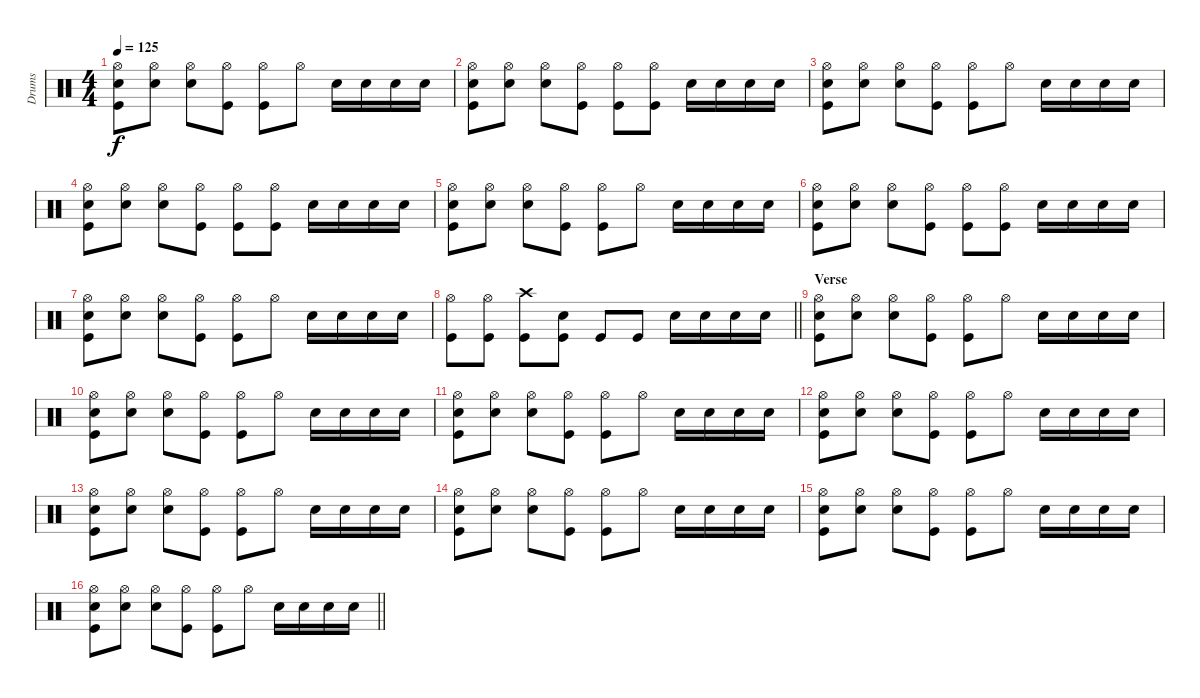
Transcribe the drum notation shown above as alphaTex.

\track ("Drums" "Drums") {instrument percussion}
\staff {score}
\articulation defaults
\ts (4 4)
\tempo 125
\clef neutral
\ks c
("Hi-Hat (open)" "Electric Snare (hit)" "Kick (hit)").8{dy f} ("Hi-Hat (open)" "Electric Snare (hit)").8 ("Hi-Hat (open)" "Electric Snare (hit)").8 ("Hi-Hat (open)" "Kick (hit)").8 ("Hi-Hat (open)" "Kick (hit)").8 "Hi-Hat (open)".8 "Electric Snare (hit)".16 "Electric Snare (hit)".16 "Electric Snare (hit)".16 "Electric Snare (hit)".16 |
("Hi-Hat (open)" "Electric Snare (hit)" "Kick (hit)").8 ("Hi-Hat (open)" "Electric Snare (hit)").8 ("Hi-Hat (open)" "Electric Snare (hit)").8 ("Hi-Hat (open)" "Kick (hit)").8 ("Hi-Hat (open)" "Kick (hit)").8 ("Hi-Hat (open)" "Kick (hit)").8 "Electric Snare (hit)".16 "Electric Snare (hit)".16 "Electric Snare (hit)".16 "Electric Snare (hit)".16 |
("Hi-Hat (open)" "Electric Snare (hit)" "Kick (hit)").8 ("Hi-Hat (open)" "Electric Snare (hit)").8 ("Hi-Hat (open)" "Electric Snare (hit)").8 ("Hi-Hat (open)" "Kick (hit)").8 ("Hi-Hat (open)" "Kick (hit)").8 "Hi-Hat (open)".8 "Electric Snare (hit)".16 "Electric Snare (hit)".16 "Electric Snare (hit)".16 "Electric Snare (hit)".16 |
("Hi-Hat (open)" "Electric Snare (hit)" "Kick (hit)").8 ("Hi-Hat (open)" "Electric Snare (hit)").8 ("Hi-Hat (open)" "Electric Snare (hit)").8 ("Hi-Hat (open)" "Kick (hit)").8 ("Hi-Hat (open)" "Kick (hit)").8 ("Hi-Hat (open)" "Kick (hit)").8 "Electric Snare (hit)".16 "Electric Snare (hit)".16 "Electric Snare (hit)".16 "Electric Snare (hit)".16 |
("Hi-Hat (open)" "Electric Snare (hit)" "Kick (hit)").8 ("Hi-Hat (open)" "Electric Snare (hit)").8 ("Hi-Hat (open)" "Electric Snare (hit)").8 ("Hi-Hat (open)" "Kick (hit)").8 ("Hi-Hat (open)" "Kick (hit)").8 "Hi-Hat (open)".8 "Electric Snare (hit)".16 "Electric Snare (hit)".16 "Electric Snare (hit)".16 "Electric Snare (hit)".16 |
("Hi-Hat (open)" "Electric Snare (hit)" "Kick (hit)").8 ("Hi-Hat (open)" "Electric Snare (hit)").8 ("Hi-Hat (open)" "Electric Snare (hit)").8 ("Hi-Hat (open)" "Kick (hit)").8 ("Hi-Hat (open)" "Kick (hit)").8 ("Hi-Hat (open)" "Kick (hit)").8 "Electric Snare (hit)".16 "Electric Snare (hit)".16 "Electric Snare (hit)".16 "Electric Snare (hit)".16 |
("Hi-Hat (open)" "Electric Snare (hit)" "Kick (hit)").8 ("Hi-Hat (open)" "Electric Snare (hit)").8 ("Hi-Hat (open)" "Electric Snare (hit)").8 ("Hi-Hat (open)" "Kick (hit)").8 ("Hi-Hat (open)" "Kick (hit)").8 "Hi-Hat (open)".8 "Electric Snare (hit)".16 "Electric Snare (hit)".16 "Electric Snare (hit)".16 "Electric Snare (hit)".16 |
\barLineRight lightlight
("Hi-Hat (open)" "Kick (hit)").8 ("Hi-Hat (open)" "Kick (hit)").8 ("Crash high (hit)" "Kick (hit)").8 ("Electric Snare (hit)" "Kick (hit)").8 "Kick (hit)".8 "Kick (hit)".8 "Electric Snare (hit)".16 "Electric Snare (hit)".16 "Electric Snare (hit)".16 "Electric Snare (hit)".16 |
\section ("" "Verse")
("Hi-Hat (open)" "Electric Snare (hit)" "Kick (hit)").8 ("Hi-Hat (open)" "Electric Snare (hit)").8 ("Hi-Hat (open)" "Electric Snare (hit)").8 ("Hi-Hat (open)" "Kick (hit)").8 ("Hi-Hat (open)" "Kick (hit)").8 "Hi-Hat (open)".8 "Electric Snare (hit)".16 "Electric Snare (hit)".16 "Electric Snare (hit)".16 "Electric Snare (hit)".16 |
("Hi-Hat (open)" "Electric Snare (hit)" "Kick (hit)").8 ("Hi-Hat (open)" "Electric Snare (hit)").8 ("Hi-Hat (open)" "Electric Snare (hit)").8 ("Hi-Hat (open)" "Kick (hit)").8 ("Hi-Hat (open)" "Kick (hit)").8 "Hi-Hat (open)".8 "Electric Snare (hit)".16 "Electric Snare (hit)".16 "Electric Snare (hit)".16 "Electric Snare (hit)".16 |
("Hi-Hat (open)" "Electric Snare (hit)" "Kick (hit)").8 ("Hi-Hat (open)" "Electric Snare (hit)").8 ("Hi-Hat (open)" "Electric Snare (hit)").8 ("Hi-Hat (open)" "Kick (hit)").8 ("Hi-Hat (open)" "Kick (hit)").8 "Hi-Hat (open)".8 "Electric Snare (hit)".16 "Electric Snare (hit)".16 "Electric Snare (hit)".16 "Electric Snare (hit)".16 |
("Hi-Hat (open)" "Electric Snare (hit)" "Kick (hit)").8 ("Hi-Hat (open)" "Electric Snare (hit)").8 ("Hi-Hat (open)" "Electric Snare (hit)").8 ("Hi-Hat (open)" "Kick (hit)").8 ("Hi-Hat (open)" "Kick (hit)").8 "Hi-Hat (open)".8 "Electric Snare (hit)".16 "Electric Snare (hit)".16 "Electric Snare (hit)".16 "Electric Snare (hit)".16 |
("Hi-Hat (open)" "Electric Snare (hit)" "Kick (hit)").8 ("Hi-Hat (open)" "Electric Snare (hit)").8 ("Hi-Hat (open)" "Electric Snare (hit)").8 ("Hi-Hat (open)" "Kick (hit)").8 ("Hi-Hat (open)" "Kick (hit)").8 "Hi-Hat (open)".8 "Electric Snare (hit)".16 "Electric Snare (hit)".16 "Electric Snare (hit)".16 "Electric Snare (hit)".16 |
("Hi-Hat (open)" "Electric Snare (hit)" "Kick (hit)").8 ("Hi-Hat (open)" "Electric Snare (hit)").8 ("Hi-Hat (open)" "Electric Snare (hit)").8 ("Hi-Hat (open)" "Kick (hit)").8 ("Hi-Hat (open)" "Kick (hit)").8 "Hi-Hat (open)".8 "Electric Snare (hit)".16 "Electric Snare (hit)".16 "Electric Snare (hit)".16 "Electric Snare (hit)".16 |
("Hi-Hat (open)" "Electric Snare (hit)" "Kick (hit)").8 ("Hi-Hat (open)" "Electric Snare (hit)").8 ("Hi-Hat (open)" "Electric Snare (hit)").8 ("Hi-Hat (open)" "Kick (hit)").8 ("Hi-Hat (open)" "Kick (hit)").8 "Hi-Hat (open)".8 "Electric Snare (hit)".16 "Electric Snare (hit)".16 "Electric Snare (hit)".16 "Electric Snare (hit)".16 |
\barLineRight lightlight
("Hi-Hat (open)" "Electric Snare (hit)" "Kick (hit)").8 ("Hi-Hat (open)" "Electric Snare (hit)").8 ("Hi-Hat (open)" "Electric Snare (hit)").8 ("Hi-Hat (open)" "Kick (hit)").8 ("Hi-Hat (open)" "Kick (hit)").8 "Hi-Hat (open)".8 "Electric Snare (hit)".16 "Electric Snare (hit)".16 "Electric Snare (hit)".16 "Electric Snare (hit)".16
